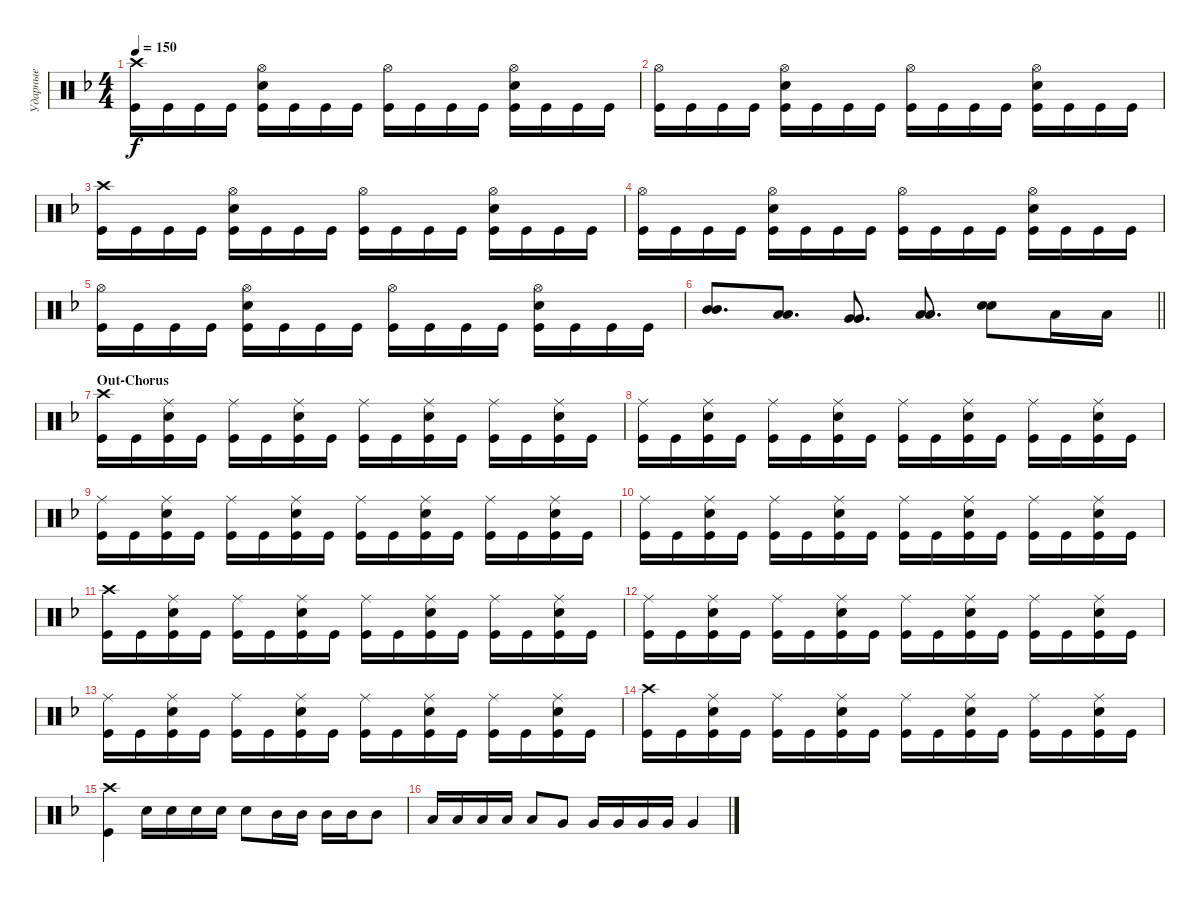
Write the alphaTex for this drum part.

\track ("Ударные" "Ударные") {instrument percussion}
\staff {score}
\articulation defaults
\ts (4 4)
\tempo 150
\clef neutral
\ks dminor
("Kick (hit)" "Crash high (hit)").16{dy f} "Kick (hit)".16 "Kick (hit)".16 "Kick (hit)".16 ("Kick (hit)" "Snare (hit) 2" "Hi-Hat (open)").16 "Kick (hit)".16 "Kick (hit)".16 "Kick (hit)".16 ("Kick (hit)" "Hi-Hat (open)").16 "Kick (hit)".16 "Kick (hit)".16 "Kick (hit)".16 ("Kick (hit)" "Snare (hit) 2" "Hi-Hat (open)").16 "Kick (hit)".16 "Kick (hit)".16 "Kick (hit)".16 |
("Kick (hit)" "Hi-Hat (open)").16 "Kick (hit)".16 "Kick (hit)".16 "Kick (hit)".16 ("Kick (hit)" "Snare (hit) 2" "Hi-Hat (open)").16 "Kick (hit)".16 "Kick (hit)".16 "Kick (hit)".16 ("Kick (hit)" "Hi-Hat (open)").16 "Kick (hit)".16 "Kick (hit)".16 "Kick (hit)".16 ("Kick (hit)" "Snare (hit) 2" "Hi-Hat (open)").16 "Kick (hit)".16 "Kick (hit)".16 "Kick (hit)".16 |
("Kick (hit)" "Crash high (hit)").16 "Kick (hit)".16 "Kick (hit)".16 "Kick (hit)".16 ("Kick (hit)" "Snare (hit) 2" "Hi-Hat (open)").16 "Kick (hit)".16 "Kick (hit)".16 "Kick (hit)".16 ("Kick (hit)" "Hi-Hat (open)").16 "Kick (hit)".16 "Kick (hit)".16 "Kick (hit)".16 ("Kick (hit)" "Snare (hit) 2" "Hi-Hat (open)").16 "Kick (hit)".16 "Kick (hit)".16 "Kick (hit)".16 |
("Kick (hit)" "Hi-Hat (open)").16 "Kick (hit)".16 "Kick (hit)".16 "Kick (hit)".16 ("Kick (hit)" "Snare (hit) 2" "Hi-Hat (open)").16 "Kick (hit)".16 "Kick (hit)".16 "Kick (hit)".16 ("Kick (hit)" "Hi-Hat (open)").16 "Kick (hit)".16 "Kick (hit)".16 "Kick (hit)".16 ("Kick (hit)" "Snare (hit) 2" "Hi-Hat (open)").16 "Kick (hit)".16 "Kick (hit)".16 "Kick (hit)".16 |
("Kick (hit)" "Hi-Hat (open)").16 "Kick (hit)".16 "Kick (hit)".16 "Kick (hit)".16 ("Kick (hit)" "Snare (hit) 2" "Hi-Hat (open)").16 "Kick (hit)".16 "Kick (hit)".16 "Kick (hit)".16 ("Kick (hit)" "Hi-Hat (open)").16 "Kick (hit)".16 "Kick (hit)".16 "Kick (hit)".16 ("Kick (hit)" "Snare (hit) 2" "Hi-Hat (open)").16 "Kick (hit)".16 "Kick (hit)".16 "Kick (hit)".16 |
\barLineRight lightlight
("Mid Tom (hit)" "Mid Tom (hit)").8{d bd 240} ("Low Tom (hit)" "Low Tom (hit)").8{d bd 240} ("Very Low Tom (hit)" "Very Low Tom (hit)").8{d bd 240} ("Low Floor Tom (hit)" "Low Floor Tom (hit)").8{d} ("Snare (hit) 2" "Snare (hit) 2").8{bd 240} "Low Tom (hit)".16 "Low Tom (hit)".16 |
\section ("" "Out-Chorus")
("Kick (hit)" "Crash high (hit)").16 "Kick (hit)".16 ("Kick (hit)" "Snare (hit) 2" "Ride (middle)").16 "Kick (hit)".16 ("Kick (hit)" "Ride (middle)").16 "Kick (hit)".16 ("Kick (hit)" "Snare (hit) 2" "Ride (middle)").16 "Kick (hit)".16 ("Kick (hit)" "Ride (middle)").16 "Kick (hit)".16 ("Snare (hit) 2" "Kick (hit)" "Ride (middle)").16 "Kick (hit)".16 ("Kick (hit)" "Ride (middle)").16 "Kick (hit)".16 ("Kick (hit)" "Snare (hit) 2" "Ride (middle)").16 "Kick (hit)".16 |
("Kick (hit)" "Ride (middle)").16 "Kick (hit)".16 ("Kick (hit)" "Snare (hit) 2" "Ride (middle)").16 "Kick (hit)".16 ("Kick (hit)" "Ride (middle)").16 "Kick (hit)".16 ("Kick (hit)" "Snare (hit) 2" "Ride (middle)").16 "Kick (hit)".16 ("Kick (hit)" "Ride (middle)").16 "Kick (hit)".16 ("Snare (hit) 2" "Kick (hit)" "Ride (middle)").16 "Kick (hit)".16 ("Kick (hit)" "Ride (middle)").16 "Kick (hit)".16 ("Kick (hit)" "Snare (hit) 2" "Ride (middle)").16 "Kick (hit)".16 |
("Kick (hit)" "Ride (middle)").16 "Kick (hit)".16 ("Kick (hit)" "Snare (hit) 2" "Ride (middle)").16 "Kick (hit)".16 ("Kick (hit)" "Ride (middle)").16 "Kick (hit)".16 ("Kick (hit)" "Snare (hit) 2" "Ride (middle)").16 "Kick (hit)".16 ("Kick (hit)" "Ride (middle)").16 "Kick (hit)".16 ("Snare (hit) 2" "Kick (hit)" "Ride (middle)").16 "Kick (hit)".16 ("Kick (hit)" "Ride (middle)").16 "Kick (hit)".16 ("Kick (hit)" "Snare (hit) 2" "Ride (middle)").16 "Kick (hit)".16 |
("Kick (hit)" "Ride (middle)").16 "Kick (hit)".16 ("Kick (hit)" "Snare (hit) 2" "Ride (middle)").16 "Kick (hit)".16 ("Kick (hit)" "Ride (middle)").16 "Kick (hit)".16 ("Kick (hit)" "Snare (hit) 2" "Ride (middle)").16 "Kick (hit)".16 ("Kick (hit)" "Ride (middle)").16 "Kick (hit)".16 ("Snare (hit) 2" "Kick (hit)" "Ride (middle)").16 "Kick (hit)".16 ("Kick (hit)" "Ride (middle)").16 "Kick (hit)".16 ("Kick (hit)" "Snare (hit) 2" "Ride (middle)").16 "Kick (hit)".16 |
("Kick (hit)" "Crash high (hit)").16 "Kick (hit)".16 ("Kick (hit)" "Snare (hit) 2" "Ride (middle)").16 "Kick (hit)".16 ("Kick (hit)" "Ride (middle)").16 "Kick (hit)".16 ("Kick (hit)" "Snare (hit) 2" "Ride (middle)").16 "Kick (hit)".16 ("Kick (hit)" "Ride (middle)").16 "Kick (hit)".16 ("Snare (hit) 2" "Kick (hit)" "Ride (middle)").16 "Kick (hit)".16 ("Kick (hit)" "Ride (middle)").16 "Kick (hit)".16 ("Kick (hit)" "Snare (hit) 2" "Ride (middle)").16 "Kick (hit)".16 |
("Kick (hit)" "Ride (middle)").16 "Kick (hit)".16 ("Kick (hit)" "Snare (hit) 2" "Ride (middle)").16 "Kick (hit)".16 ("Kick (hit)" "Ride (middle)").16 "Kick (hit)".16 ("Kick (hit)" "Snare (hit) 2" "Ride (middle)").16 "Kick (hit)".16 ("Kick (hit)" "Ride (middle)").16 "Kick (hit)".16 ("Snare (hit) 2" "Kick (hit)" "Ride (middle)").16 "Kick (hit)".16 ("Kick (hit)" "Ride (middle)").16 "Kick (hit)".16 ("Kick (hit)" "Snare (hit) 2" "Ride (middle)").16 "Kick (hit)".16 |
("Kick (hit)" "Ride (middle)").16 "Kick (hit)".16 ("Kick (hit)" "Snare (hit) 2" "Ride (middle)").16 "Kick (hit)".16 ("Kick (hit)" "Ride (middle)").16 "Kick (hit)".16 ("Kick (hit)" "Snare (hit) 2" "Ride (middle)").16 "Kick (hit)".16 ("Kick (hit)" "Ride (middle)").16 "Kick (hit)".16 ("Snare (hit) 2" "Kick (hit)" "Ride (middle)").16 "Kick (hit)".16 ("Kick (hit)" "Ride (middle)").16 "Kick (hit)".16 ("Kick (hit)" "Snare (hit) 2" "Ride (middle)").16 "Kick (hit)".16 |
("Kick (hit)" "Crash high (hit)").16 "Kick (hit)".16 ("Kick (hit)" "Snare (hit) 2" "Ride (middle)").16 "Kick (hit)".16 ("Kick (hit)" "Ride (middle)").16 "Kick (hit)".16 ("Kick (hit)" "Snare (hit) 2" "Ride (middle)").16 "Kick (hit)".16 ("Kick (hit)" "Ride (middle)").16 "Kick (hit)".16 ("Snare (hit) 2" "Kick (hit)" "Ride (middle)").16 "Kick (hit)".16 ("Kick (hit)" "Ride (middle)").16 "Kick (hit)".16 ("Kick (hit)" "Snare (hit) 2" "Ride (middle)").16 "Kick (hit)".16 |
("Kick (hit)" "Crash high (hit)").4 "Snare (hit) 2".16 "Snare (hit) 2".16 "Snare (hit) 2".16 "Snare (hit) 2".16 "Snare (hit) 2".8 "Mid Tom (hit)".16 "Mid Tom (hit)".16 "Mid Tom (hit)".16 "Mid Tom (hit)".16 "Mid Tom (hit)".8 |
"Low Tom (hit)".16 "Low Tom (hit)".16 "Low Tom (hit)".16 "Low Tom (hit)".16 "Low Tom (hit)".8 "Very Low Tom (hit)".8 "Very Low Tom (hit)".16 "Very Low Tom (hit)".16 "Very Low Tom (hit)".16 "Very Low Tom (hit)".16 "Very Low Tom (hit)".4
